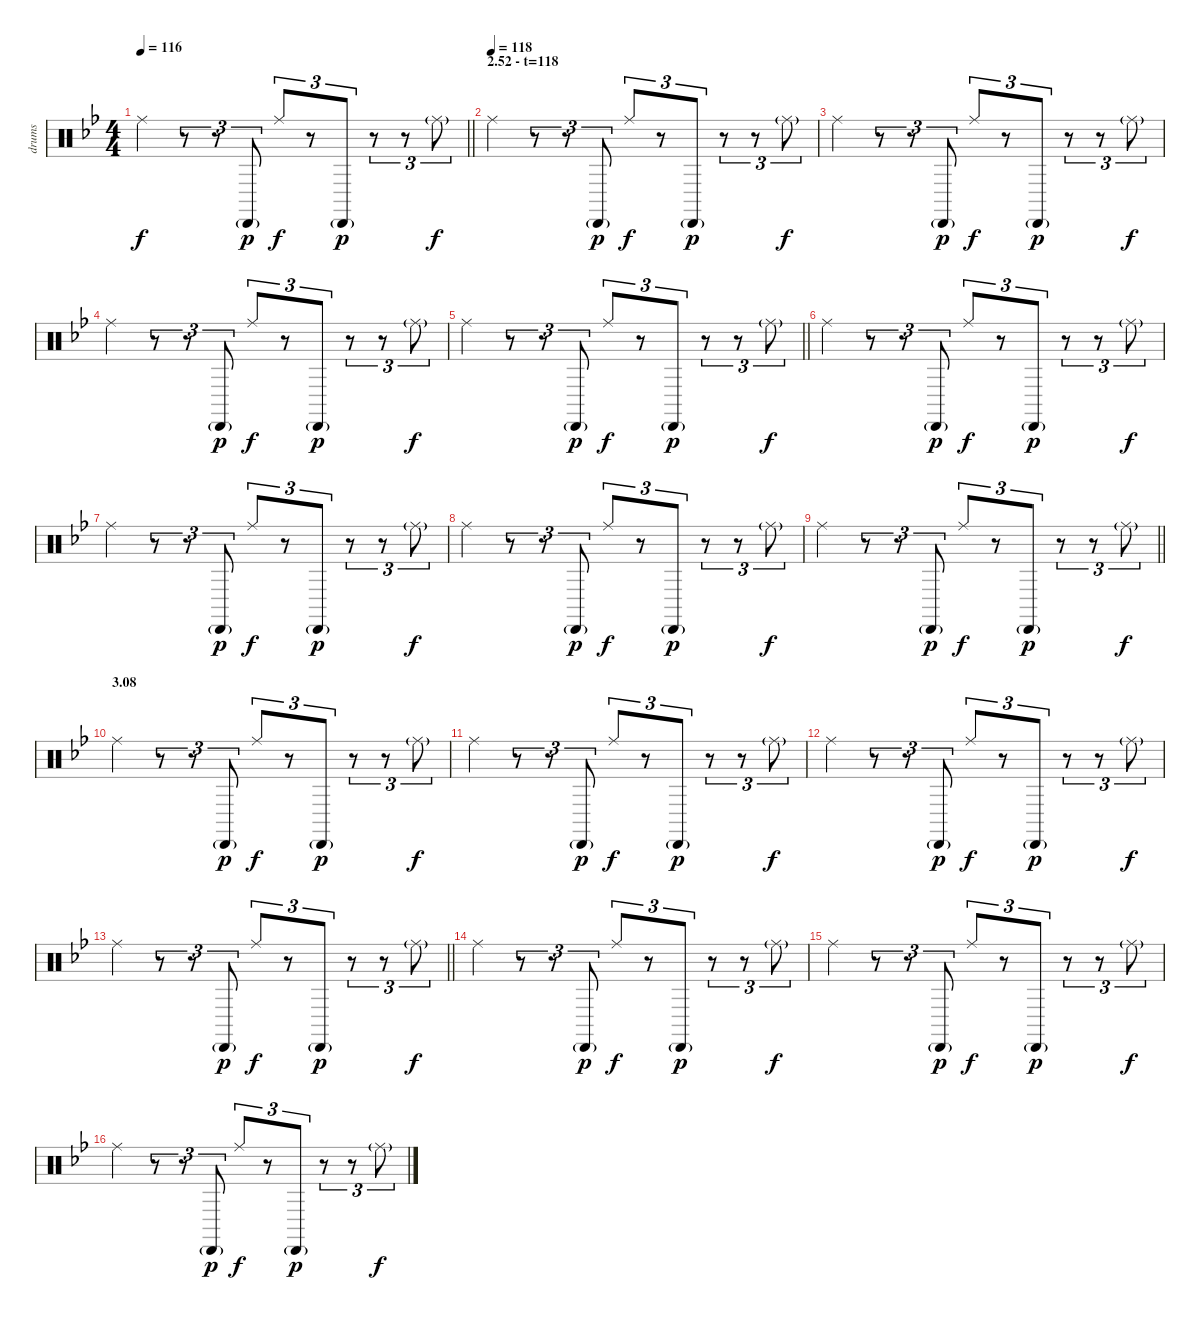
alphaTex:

\track ("drums" "drums") {instrument percussion}
\staff {score}
\articulation defaults
\ts (4 4)
\tempo 116
\clef neutral
\barLineRight lightlight
\ks bb "Ride (middle)".4{dy f}
r.8{tu (3 2)} r.8{tu (3 2)} "Cabasa (hit)"{g}.8{tu (3 2) dy p} "Ride (middle)".8{tu (3 2) dy f} r.8{tu (3 2)} "Cabasa (hit)"{g}.8{tu (3 2) dy p} r.8{tu (3 2)} r.8{tu (3 2)} "Ride (middle)"{g}.8{tu (3 2) dy f} |
\section ("" "2.52 - t=118")
\tempo (118)
"Ride (middle)".4 r.8{tu (3 2)} r.8{tu (3 2)} "Cabasa (hit)"{g}.8{tu (3 2) dy p} "Ride (middle)".8{tu (3 2) dy f} r.8{tu (3 2)} "Cabasa (hit)"{g}.8{tu (3 2) dy p} r.8{tu (3 2)} r.8{tu (3 2)} "Ride (middle)"{g}.8{tu (3 2) dy f} |
"Ride (middle)".4 r.8{tu (3 2)} r.8{tu (3 2)} "Cabasa (hit)"{g}.8{tu (3 2) dy p} "Ride (middle)".8{tu (3 2) dy f} r.8{tu (3 2)} "Cabasa (hit)"{g}.8{tu (3 2) dy p} r.8{tu (3 2)} r.8{tu (3 2)} "Ride (middle)"{g}.8{tu (3 2) dy f} |
"Ride (middle)".4 r.8{tu (3 2)} r.8{tu (3 2)} "Cabasa (hit)"{g}.8{tu (3 2) dy p} "Ride (middle)".8{tu (3 2) dy f} r.8{tu (3 2)} "Cabasa (hit)"{g}.8{tu (3 2) dy p} r.8{tu (3 2)} r.8{tu (3 2)} "Ride (middle)"{g}.8{tu (3 2) dy f} |
\barLineRight lightlight "Ride (middle)".4
r.8{tu (3 2)} r.8{tu (3 2)} "Cabasa (hit)"{g}.8{tu (3 2) dy p} "Ride (middle)".8{tu (3 2) dy f} r.8{tu (3 2)} "Cabasa (hit)"{g}.8{tu (3 2) dy p} r.8{tu (3 2)} r.8{tu (3 2)} "Ride (middle)"{g}.8{tu (3 2) dy f} |
"Ride (middle)".4 r.8{tu (3 2)} r.8{tu (3 2)} "Cabasa (hit)"{g}.8{tu (3 2) dy p} "Ride (middle)".8{tu (3 2) dy f} r.8{tu (3 2)} "Cabasa (hit)"{g}.8{tu (3 2) dy p} r.8{tu (3 2)} r.8{tu (3 2)} "Ride (middle)"{g}.8{tu (3 2) dy f} |
"Ride (middle)".4 r.8{tu (3 2)} r.8{tu (3 2)} "Cabasa (hit)"{g}.8{tu (3 2) dy p} "Ride (middle)".8{tu (3 2) dy f} r.8{tu (3 2)} "Cabasa (hit)"{g}.8{tu (3 2) dy p} r.8{tu (3 2)} r.8{tu (3 2)} "Ride (middle)"{g}.8{tu (3 2) dy f} |
"Ride (middle)".4 r.8{tu (3 2)} r.8{tu (3 2)} "Cabasa (hit)"{g}.8{tu (3 2) dy p} "Ride (middle)".8{tu (3 2) dy f} r.8{tu (3 2)} "Cabasa (hit)"{g}.8{tu (3 2) dy p} r.8{tu (3 2)} r.8{tu (3 2)} "Ride (middle)"{g}.8{tu (3 2) dy f} |
\barLineRight lightlight "Ride (middle)".4
r.8{tu (3 2)} r.8{tu (3 2)} "Cabasa (hit)"{g}.8{tu (3 2) dy p} "Ride (middle)".8{tu (3 2) dy f} r.8{tu (3 2)} "Cabasa (hit)"{g}.8{tu (3 2) dy p} r.8{tu (3 2)} r.8{tu (3 2)} "Ride (middle)"{g}.8{tu (3 2) dy f} |
\section ("" "3.08")
"Ride (middle)".4 r.8{tu (3 2)} r.8{tu (3 2)} "Cabasa (hit)"{g}.8{tu (3 2) dy p} "Ride (middle)".8{tu (3 2) dy f} r.8{tu (3 2)} "Cabasa (hit)"{g}.8{tu (3 2) dy p} r.8{tu (3 2)} r.8{tu (3 2)} "Ride (middle)"{g}.8{tu (3 2) dy f} |
"Ride (middle)".4 r.8{tu (3 2)} r.8{tu (3 2)} "Cabasa (hit)"{g}.8{tu (3 2) dy p} "Ride (middle)".8{tu (3 2) dy f} r.8{tu (3 2)} "Cabasa (hit)"{g}.8{tu (3 2) dy p} r.8{tu (3 2)} r.8{tu (3 2)} "Ride (middle)"{g}.8{tu (3 2) dy f} |
"Ride (middle)".4 r.8{tu (3 2)} r.8{tu (3 2)} "Cabasa (hit)"{g}.8{tu (3 2) dy p} "Ride (middle)".8{tu (3 2) dy f} r.8{tu (3 2)} "Cabasa (hit)"{g}.8{tu (3 2) dy p} r.8{tu (3 2)} r.8{tu (3 2)} "Ride (middle)"{g}.8{tu (3 2) dy f} |
\barLineRight lightlight "Ride (middle)".4
r.8{tu (3 2)} r.8{tu (3 2)} "Cabasa (hit)"{g}.8{tu (3 2) dy p} "Ride (middle)".8{tu (3 2) dy f} r.8{tu (3 2)} "Cabasa (hit)"{g}.8{tu (3 2) dy p} r.8{tu (3 2)} r.8{tu (3 2)} "Ride (middle)"{g}.8{tu (3 2) dy f} |
"Ride (middle)".4 r.8{tu (3 2)} r.8{tu (3 2)} "Cabasa (hit)"{g}.8{tu (3 2) dy p} "Ride (middle)".8{tu (3 2) dy f} r.8{tu (3 2)} "Cabasa (hit)"{g}.8{tu (3 2) dy p} r.8{tu (3 2)} r.8{tu (3 2)} "Ride (middle)"{g}.8{tu (3 2) dy f} |
"Ride (middle)".4 r.8{tu (3 2)} r.8{tu (3 2)} "Cabasa (hit)"{g}.8{tu (3 2) dy p} "Ride (middle)".8{tu (3 2) dy f} r.8{tu (3 2)} "Cabasa (hit)"{g}.8{tu (3 2) dy p} r.8{tu (3 2)} r.8{tu (3 2)} "Ride (middle)"{g}.8{tu (3 2) dy f} |
"Ride (middle)".4 r.8{tu (3 2)} r.8{tu (3 2)} "Cabasa (hit)"{g}.8{tu (3 2) dy p} "Ride (middle)".8{tu (3 2) dy f} r.8{tu (3 2)} "Cabasa (hit)"{g}.8{tu (3 2) dy p} r.8{tu (3 2)} r.8{tu (3 2)} "Ride (middle)"{g}.8{tu (3 2) dy f}
